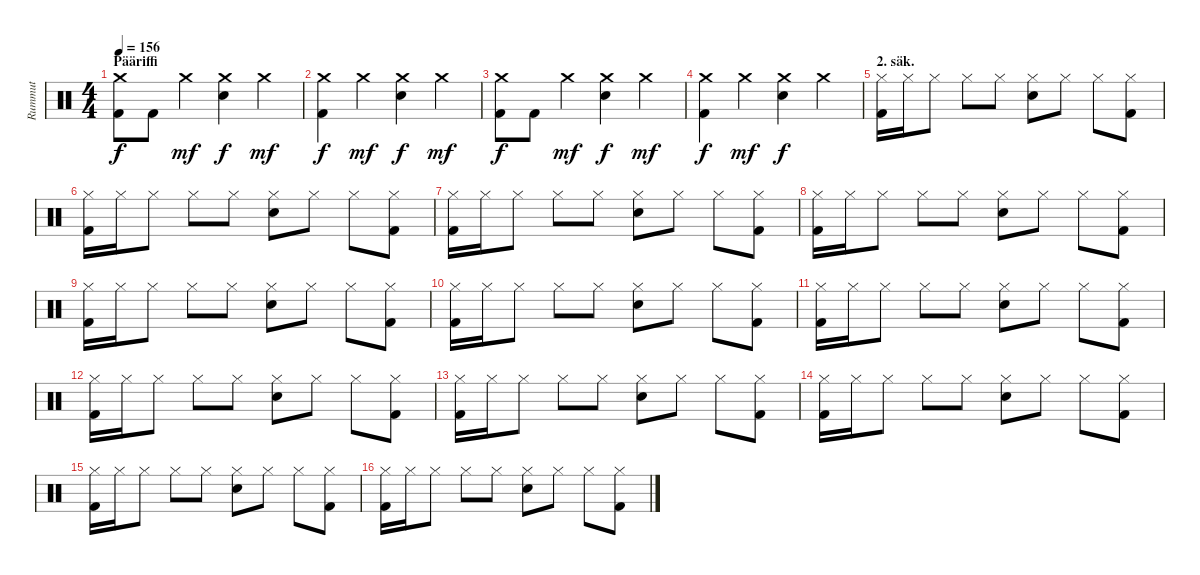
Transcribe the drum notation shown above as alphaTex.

\track ("Rummut" "Rummut") {instrument percussion}
\staff {score}
\articulation defaults
\ts (4 4)
\section ("" "Pääriffi")
\tempo 156
\clef neutral
\ks c
("Kick (hit) 2" "Crash medium (hit)").8{dy f} "Kick (hit) 2".8 "Crash medium (hit)".4{dy mf} ("Crash medium (hit)" "Snare (hit) 2").4{dy f} "Crash medium (hit)".4{dy mf} |
("Kick (hit) 2" "Crash medium (hit)").4{dy f} "Crash medium (hit)".4{dy mf} ("Crash medium (hit)" "Snare (hit) 2").4{dy f} "Crash medium (hit)".4{dy mf} |
("Kick (hit) 2" "Crash medium (hit)").8{dy f} "Kick (hit) 2".8 "Crash medium (hit)".4{dy mf} ("Crash medium (hit)" "Snare (hit) 2").4{dy f} "Crash medium (hit)".4{dy mf} |
("Kick (hit) 2" "Crash medium (hit)").4{dy f} "Crash medium (hit)".4{dy mf} ("Crash medium (hit)" "Snare (hit) 2").4{dy f} "Crash medium (hit)".4 |
\section ("" "2. säk.")
("Kick (hit) 2" "Hi-Hat (closed)").16 "Hi-Hat (closed)".16 "Hi-Hat (closed)".8 "Hi-Hat (closed)".8 "Hi-Hat (closed)".8 ("Hi-Hat (closed)" "Snare (hit) 2").8 "Hi-Hat (closed)".8 "Hi-Hat (closed)".8 ("Kick (hit) 2" "Hi-Hat (closed)").8 |
("Kick (hit) 2" "Hi-Hat (closed)").16 "Hi-Hat (closed)".16 "Hi-Hat (closed)".8 "Hi-Hat (closed)".8 "Hi-Hat (closed)".8 ("Hi-Hat (closed)" "Snare (hit) 2").8 "Hi-Hat (closed)".8 "Hi-Hat (closed)".8 ("Kick (hit) 2" "Hi-Hat (closed)").8 |
("Kick (hit) 2" "Hi-Hat (closed)").16 "Hi-Hat (closed)".16 "Hi-Hat (closed)".8 "Hi-Hat (closed)".8 "Hi-Hat (closed)".8 ("Hi-Hat (closed)" "Snare (hit) 2").8 "Hi-Hat (closed)".8 "Hi-Hat (closed)".8 ("Kick (hit) 2" "Hi-Hat (closed)").8 |
("Kick (hit) 2" "Hi-Hat (closed)").16 "Hi-Hat (closed)".16 "Hi-Hat (closed)".8 "Hi-Hat (closed)".8 "Hi-Hat (closed)".8 ("Hi-Hat (closed)" "Snare (hit) 2").8 "Hi-Hat (closed)".8 "Hi-Hat (closed)".8 ("Kick (hit) 2" "Hi-Hat (closed)").8 |
("Kick (hit) 2" "Hi-Hat (closed)").16 "Hi-Hat (closed)".16 "Hi-Hat (closed)".8 "Hi-Hat (closed)".8 "Hi-Hat (closed)".8 ("Hi-Hat (closed)" "Snare (hit) 2").8 "Hi-Hat (closed)".8 "Hi-Hat (closed)".8 ("Kick (hit) 2" "Hi-Hat (closed)").8 |
("Kick (hit) 2" "Hi-Hat (closed)").16 "Hi-Hat (closed)".16 "Hi-Hat (closed)".8 "Hi-Hat (closed)".8 "Hi-Hat (closed)".8 ("Hi-Hat (closed)" "Snare (hit) 2").8 "Hi-Hat (closed)".8 "Hi-Hat (closed)".8 ("Kick (hit) 2" "Hi-Hat (closed)").8 |
("Kick (hit) 2" "Hi-Hat (closed)").16 "Hi-Hat (closed)".16 "Hi-Hat (closed)".8 "Hi-Hat (closed)".8 "Hi-Hat (closed)".8 ("Hi-Hat (closed)" "Snare (hit) 2").8 "Hi-Hat (closed)".8 "Hi-Hat (closed)".8 ("Kick (hit) 2" "Hi-Hat (closed)").8 |
("Kick (hit) 2" "Hi-Hat (closed)").16 "Hi-Hat (closed)".16 "Hi-Hat (closed)".8 "Hi-Hat (closed)".8 "Hi-Hat (closed)".8 ("Hi-Hat (closed)" "Snare (hit) 2").8 "Hi-Hat (closed)".8 "Hi-Hat (closed)".8 ("Kick (hit) 2" "Hi-Hat (closed)").8 |
("Kick (hit) 2" "Hi-Hat (closed)").16 "Hi-Hat (closed)".16 "Hi-Hat (closed)".8 "Hi-Hat (closed)".8 "Hi-Hat (closed)".8 ("Hi-Hat (closed)" "Snare (hit) 2").8 "Hi-Hat (closed)".8 "Hi-Hat (closed)".8 ("Kick (hit) 2" "Hi-Hat (closed)").8 |
("Kick (hit) 2" "Hi-Hat (closed)").16 "Hi-Hat (closed)".16 "Hi-Hat (closed)".8 "Hi-Hat (closed)".8 "Hi-Hat (closed)".8 ("Hi-Hat (closed)" "Snare (hit) 2").8 "Hi-Hat (closed)".8 "Hi-Hat (closed)".8 ("Kick (hit) 2" "Hi-Hat (closed)").8 |
("Kick (hit) 2" "Hi-Hat (closed)").16 "Hi-Hat (closed)".16 "Hi-Hat (closed)".8 "Hi-Hat (closed)".8 "Hi-Hat (closed)".8 ("Hi-Hat (closed)" "Snare (hit) 2").8 "Hi-Hat (closed)".8 "Hi-Hat (closed)".8 ("Kick (hit) 2" "Hi-Hat (closed)").8 |
("Kick (hit) 2" "Hi-Hat (closed)").16 "Hi-Hat (closed)".16 "Hi-Hat (closed)".8 "Hi-Hat (closed)".8 "Hi-Hat (closed)".8 ("Hi-Hat (closed)" "Snare (hit) 2").8 "Hi-Hat (closed)".8 "Hi-Hat (closed)".8 ("Kick (hit) 2" "Hi-Hat (closed)").8
